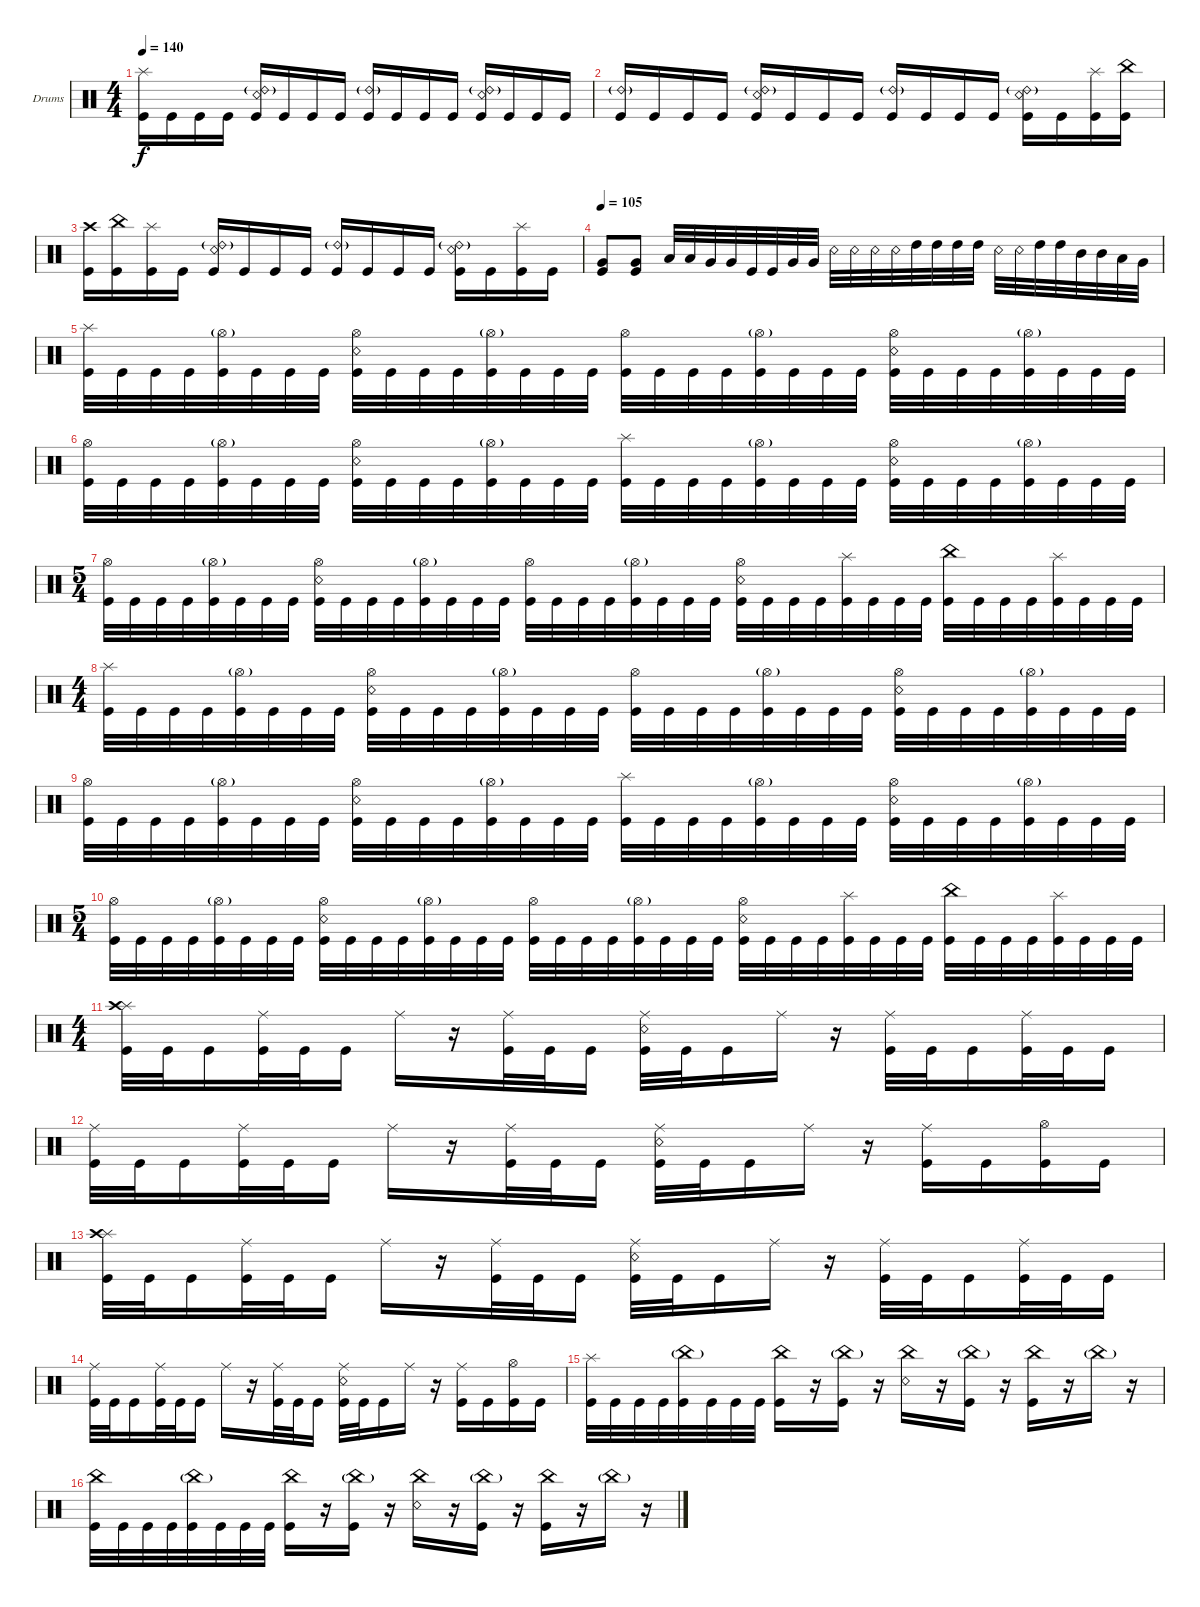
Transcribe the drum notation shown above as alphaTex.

\defaultSystemsLayout 4
\bracketExtendMode groupsimilarinstruments
\firstSystemTrackNameOrientation horizontal
\otherSystemsTrackNameOrientation horizontal
\track ("Drumkit" "Drums") {instrument percussion}
\staff {score}
\articulation defaults
\ts (4 4)
\tempo 140
\clef neutral
\ks c
("Kick (hit)" "Splash (hit)").16{dy f} "Kick (hit)".16 "Kick (hit)".16 "Kick (hit)".16 ("Kick (hit)" "Snare (rim shot)" "Ride (bell) 2"{g}).16 "Kick (hit)".16 "Kick (hit)".16 "Kick (hit)".16 ("Kick (hit)" "Ride (bell) 2"{g}).16 "Kick (hit)".16 "Kick (hit)".16 "Kick (hit)".16 ("Kick (hit)" "Snare (rim shot)" "Ride (bell) 2"{g}).16 "Kick (hit)".16 "Kick (hit)".16 "Kick (hit)".16 |
("Kick (hit)" "Ride (bell) 2"{g}).16 "Kick (hit)".16 "Kick (hit)".16 "Kick (hit)".16 ("Kick (hit)" "Snare (rim shot)" "Ride (bell) 2"{g}).16 "Kick (hit)".16 "Kick (hit)".16 "Kick (hit)".16 ("Kick (hit)" "Ride (bell) 2"{g}).16 "Kick (hit)".16 "Kick (hit)".16 "Kick (hit)".16 ("Kick (hit)" "Snare (rim shot)" "Ride (bell) 2"{g}).16 "Kick (hit)".16 ("Kick (hit)" "Splash (hit)").16 ("Kick (hit)" "China (hit)").16 |
("Kick (hit)" "Crash high (hit)").16 ("Kick (hit)" "China (hit)").16 ("Kick (hit)" "Splash (hit)").16 "Kick (hit)".16 ("Kick (hit)" "Snare (rim shot)" "Ride (bell) 2"{g}).16 "Kick (hit)".16 "Kick (hit)".16 "Kick (hit)".16 ("Kick (hit)" "Ride (bell) 2"{g}).16 "Kick (hit)".16 "Kick (hit)".16 "Kick (hit)".16 ("Kick (hit)" "Snare (rim shot)" "Ride (bell) 2"{g}).16 "Kick (hit)".16 ("Kick (hit)" "Splash (hit)").16 "Kick (hit)".16 |
\tempo 105
("Kick (hit)" "Very Low Tom (hit)").8 ("Kick (hit)" "Very Low Tom (hit)").8 "Low Tom (hit)".32 "Low Tom (hit)".32 "Very Low Tom (hit)".32 "Very Low Tom (hit)".32 "Kick (hit)".32 "Kick (hit)".32 "Very Low Tom (hit)".32 "Very Low Tom (hit)".32 "Snare (rim shot)".32 "Snare (rim shot)".32 "Snare (rim shot)".32 "Snare (rim shot)".32 "High Tom (hit)".32 "High Tom (hit)".32 "High Tom (hit)".32 "High Tom (hit)".32 "Snare (rim shot)".32 "Snare (rim shot)".32 "High Tom (hit)".32 "High Tom (hit)".32 "Mid Tom (hit)".32 "Mid Tom (hit)".32 "Low Tom (hit)".32 "Very Low Tom (hit)".32 |
("Kick (hit)" "Splash (hit)").32 "Kick (hit)".32 "Kick (hit)".32 "Kick (hit)".32 ("Kick (hit)" "Hi-Hat (open)"{g}).32 "Kick (hit)".32 "Kick (hit)".32 "Kick (hit)".32 ("Kick (hit)" "Snare (rim shot)" "Hi-Hat (open)").32 "Kick (hit)".32 "Kick (hit)".32 "Kick (hit)".32 ("Kick (hit)" "Hi-Hat (open)"{g}).32 "Kick (hit)".32 "Kick (hit)".32 "Kick (hit)".32 ("Kick (hit)" "Hi-Hat (open)").32 "Kick (hit)".32 "Kick (hit)".32 "Kick (hit)".32 ("Kick (hit)" "Hi-Hat (open)"{g}).32 "Kick (hit)".32 "Kick (hit)".32 "Kick (hit)".32 ("Kick (hit)" "Snare (rim shot)" "Hi-Hat (open)").32 "Kick (hit)".32 "Kick (hit)".32 "Kick (hit)".32 ("Kick (hit)" "Hi-Hat (open)"{g}).32 "Kick (hit)".32 "Kick (hit)".32 "Kick (hit)".32 |
("Kick (hit)" "Hi-Hat (open)").32 "Kick (hit)".32 "Kick (hit)".32 "Kick (hit)".32 ("Kick (hit)" "Hi-Hat (open)"{g}).32 "Kick (hit)".32 "Kick (hit)".32 "Kick (hit)".32 ("Kick (hit)" "Snare (rim shot)" "Hi-Hat (open)").32 "Kick (hit)".32 "Kick (hit)".32 "Kick (hit)".32 ("Kick (hit)" "Hi-Hat (open)"{g}).32 "Kick (hit)".32 "Kick (hit)".32 "Kick (hit)".32 ("Kick (hit)" "Splash (hit)").32 "Kick (hit)".32 "Kick (hit)".32 "Kick (hit)".32 ("Kick (hit)" "Hi-Hat (open)"{g}).32 "Kick (hit)".32 "Kick (hit)".32 "Kick (hit)".32 ("Kick (hit)" "Snare (rim shot)" "Hi-Hat (open)").32 "Kick (hit)".32 "Kick (hit)".32 "Kick (hit)".32 ("Kick (hit)" "Hi-Hat (open)"{g}).32 "Kick (hit)".32 "Kick (hit)".32 "Kick (hit)".32 |
\ts (5 4)
("Kick (hit)" "Hi-Hat (open)").32 "Kick (hit)".32 "Kick (hit)".32 "Kick (hit)".32 ("Kick (hit)" "Hi-Hat (open)"{g}).32 "Kick (hit)".32 "Kick (hit)".32 "Kick (hit)".32{beam split} ("Kick (hit)" "Snare (rim shot)" "Hi-Hat (open)").32 "Kick (hit)".32 "Kick (hit)".32 "Kick (hit)".32 ("Kick (hit)" "Hi-Hat (open)"{g}).32 "Kick (hit)".32 "Kick (hit)".32 "Kick (hit)".32{beam split} ("Kick (hit)" "Hi-Hat (open)").32 "Kick (hit)".32 "Kick (hit)".32 "Kick (hit)".32 ("Kick (hit)" "Hi-Hat (open)"{g}).32 "Kick (hit)".32 "Kick (hit)".32 "Kick (hit)".32 ("Kick (hit)" "Snare (rim shot)" "Hi-Hat (open)").32 "Kick (hit)".32 "Kick (hit)".32 "Kick (hit)".32 ("Kick (hit)" "Splash (hit)").32 "Kick (hit)".32 "Kick (hit)".32 "Kick (hit)".32{beam split} ("Kick (hit)" "China (hit)").32 "Kick (hit)".32 "Kick (hit)".32 "Kick (hit)".32 ("Kick (hit)" "Splash (hit)").32 "Kick (hit)".32 "Kick (hit)".32 "Kick (hit)".32 |
\ts (4 4)
("Kick (hit)" "Splash (hit)").32 "Kick (hit)".32 "Kick (hit)".32 "Kick (hit)".32 ("Kick (hit)" "Hi-Hat (open)"{g}).32 "Kick (hit)".32 "Kick (hit)".32 "Kick (hit)".32 ("Kick (hit)" "Snare (rim shot)" "Hi-Hat (open)").32 "Kick (hit)".32 "Kick (hit)".32 "Kick (hit)".32 ("Kick (hit)" "Hi-Hat (open)"{g}).32 "Kick (hit)".32 "Kick (hit)".32 "Kick (hit)".32 ("Kick (hit)" "Hi-Hat (open)").32 "Kick (hit)".32 "Kick (hit)".32 "Kick (hit)".32 ("Kick (hit)" "Hi-Hat (open)"{g}).32 "Kick (hit)".32 "Kick (hit)".32 "Kick (hit)".32 ("Kick (hit)" "Snare (rim shot)" "Hi-Hat (open)").32 "Kick (hit)".32 "Kick (hit)".32 "Kick (hit)".32 ("Kick (hit)" "Hi-Hat (open)"{g}).32 "Kick (hit)".32 "Kick (hit)".32 "Kick (hit)".32 |
("Kick (hit)" "Hi-Hat (open)").32 "Kick (hit)".32 "Kick (hit)".32 "Kick (hit)".32 ("Kick (hit)" "Hi-Hat (open)"{g}).32 "Kick (hit)".32 "Kick (hit)".32 "Kick (hit)".32 ("Kick (hit)" "Snare (rim shot)" "Hi-Hat (open)").32 "Kick (hit)".32 "Kick (hit)".32 "Kick (hit)".32 ("Kick (hit)" "Hi-Hat (open)"{g}).32 "Kick (hit)".32 "Kick (hit)".32 "Kick (hit)".32 ("Kick (hit)" "Splash (hit)").32 "Kick (hit)".32 "Kick (hit)".32 "Kick (hit)".32 ("Kick (hit)" "Hi-Hat (open)"{g}).32 "Kick (hit)".32 "Kick (hit)".32 "Kick (hit)".32 ("Kick (hit)" "Snare (rim shot)" "Hi-Hat (open)").32 "Kick (hit)".32 "Kick (hit)".32 "Kick (hit)".32 ("Kick (hit)" "Hi-Hat (open)"{g}).32 "Kick (hit)".32 "Kick (hit)".32 "Kick (hit)".32 |
\ts (5 4)
("Kick (hit)" "Hi-Hat (open)").32 "Kick (hit)".32 "Kick (hit)".32 "Kick (hit)".32 ("Kick (hit)" "Hi-Hat (open)"{g}).32 "Kick (hit)".32 "Kick (hit)".32 "Kick (hit)".32{beam split} ("Kick (hit)" "Snare (rim shot)" "Hi-Hat (open)").32 "Kick (hit)".32 "Kick (hit)".32 "Kick (hit)".32 ("Kick (hit)" "Hi-Hat (open)"{g}).32 "Kick (hit)".32 "Kick (hit)".32 "Kick (hit)".32{beam split} ("Kick (hit)" "Hi-Hat (open)").32 "Kick (hit)".32 "Kick (hit)".32 "Kick (hit)".32 ("Kick (hit)" "Hi-Hat (open)"{g}).32 "Kick (hit)".32 "Kick (hit)".32 "Kick (hit)".32 ("Kick (hit)" "Snare (rim shot)" "Hi-Hat (open)").32 "Kick (hit)".32 "Kick (hit)".32 "Kick (hit)".32 ("Kick (hit)" "Splash (hit)").32 "Kick (hit)".32 "Kick (hit)".32 "Kick (hit)".32{beam split} ("Kick (hit)" "China (hit)").32 "Kick (hit)".32 "Kick (hit)".32 "Kick (hit)".32 ("Kick (hit)" "Splash (hit)").32 "Kick (hit)".32 "Kick (hit)".32 "Kick (hit)".32 |
\ts (4 4)
("Kick (hit)" "Splash (hit)" "Crash high (hit)").32 "Kick (hit)".32 "Kick (hit)".16 ("Kick (hit)" "Ride (middle)").32 "Kick (hit)".32 "Kick (hit)".16 "Ride (middle)".16 r.16 ("Kick (hit)" "Ride (middle)").32 "Kick (hit)".32 "Kick (hit)".16 ("Kick (hit)" "Ride (middle)" "Snare (rim shot)").32 "Kick (hit)".32 "Kick (hit)".16 "Ride (middle)".16 r.16 ("Kick (hit)" "Ride (middle)").32 "Kick (hit)".32 "Kick (hit)".16 ("Kick (hit)" "Ride (middle)").32 "Kick (hit)".32 "Kick (hit)".16 |
("Kick (hit)" "Ride (middle)").32 "Kick (hit)".32 "Kick (hit)".16 ("Kick (hit)" "Ride (middle)").32 "Kick (hit)".32 "Kick (hit)".16 "Ride (middle)".16 r.16 ("Kick (hit)" "Ride (middle)").32 "Kick (hit)".32 "Kick (hit)".16 ("Kick (hit)" "Snare (rim shot)" "Ride (middle)").32 "Kick (hit)".32 "Kick (hit)".16 "Ride (middle)".16 r.16 ("Kick (hit)" "Ride (middle)").16 "Kick (hit)".16 ("Kick (hit)" "Hi-Hat (open)").16 "Kick (hit)".16 |
("Kick (hit)" "Splash (hit)" "Crash high (hit)").32 "Kick (hit)".32 "Kick (hit)".16 ("Kick (hit)" "Ride (middle)").32 "Kick (hit)".32 "Kick (hit)".16 "Ride (middle)".16 r.16 ("Kick (hit)" "Ride (middle)").32 "Kick (hit)".32 "Kick (hit)".16 ("Kick (hit)" "Ride (middle)" "Snare (rim shot)").32 "Kick (hit)".32 "Kick (hit)".16 "Ride (middle)".16 r.16 ("Kick (hit)" "Ride (middle)").32 "Kick (hit)".32 "Kick (hit)".16 ("Kick (hit)" "Ride (middle)").32 "Kick (hit)".32 "Kick (hit)".16 |
("Kick (hit)" "Ride (middle)").32 "Kick (hit)".32 "Kick (hit)".16 ("Kick (hit)" "Ride (middle)").32 "Kick (hit)".32 "Kick (hit)".16 "Ride (middle)".16 r.16 ("Kick (hit)" "Ride (middle)").32 "Kick (hit)".32 "Kick (hit)".16 ("Kick (hit)" "Snare (rim shot)" "Ride (middle)").32 "Kick (hit)".32 "Kick (hit)".16 "Ride (middle)".16 r.16 ("Kick (hit)" "Ride (middle)").16 "Kick (hit)".16 ("Kick (hit)" "Hi-Hat (open)").16 "Kick (hit)".16 |
("Kick (hit)" "Splash (hit)").32 "Kick (hit)".32 "Kick (hit)".32 "Kick (hit)".32 ("Kick (hit)" "China (hit)"{g}).32 "Kick (hit)".32 "Kick (hit)".32 "Kick (hit)".32 ("Kick (hit)" "China (hit)").16 r.16 ("Kick (hit)" "China (hit)"{g}).16 r.16 ("Snare (rim shot)" "China (hit)").16 r.16 ("Kick (hit)" "China (hit)"{g}).16 r.16 ("Kick (hit)" "China (hit)").16 r.16 "China (hit)"{g}.16 r.16 |
("Kick (hit)" "China (hit)").32 "Kick (hit)".32 "Kick (hit)".32 "Kick (hit)".32 ("Kick (hit)" "China (hit)"{g}).32 "Kick (hit)".32 "Kick (hit)".32 "Kick (hit)".32 ("Kick (hit)" "China (hit)").16 r.16 ("Kick (hit)" "China (hit)"{g}).16 r.16 ("Snare (rim shot)" "China (hit)").16 r.16 ("Kick (hit)" "China (hit)"{g}).16 r.16 ("Kick (hit)" "China (hit)").16 r.16 "China (hit)"{g}.16 r.16
